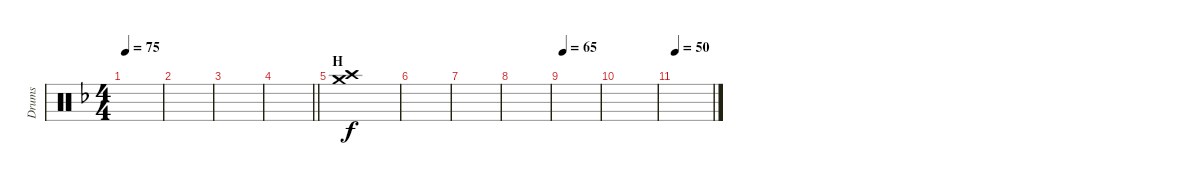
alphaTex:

\track ("Drums" "Drums") {instrument percussion}
\staff {score}
\articulation defaults
\ts (4 4)
\tempo 75
\clef neutral
\ks dminor
|
|
|
\barLineRight lightlight
|
\section ("" "H")
("Crash high (hit)" "Crash medium (hit)").1 |
|
|
|
\tempo 65
|
|
\tempo 50
